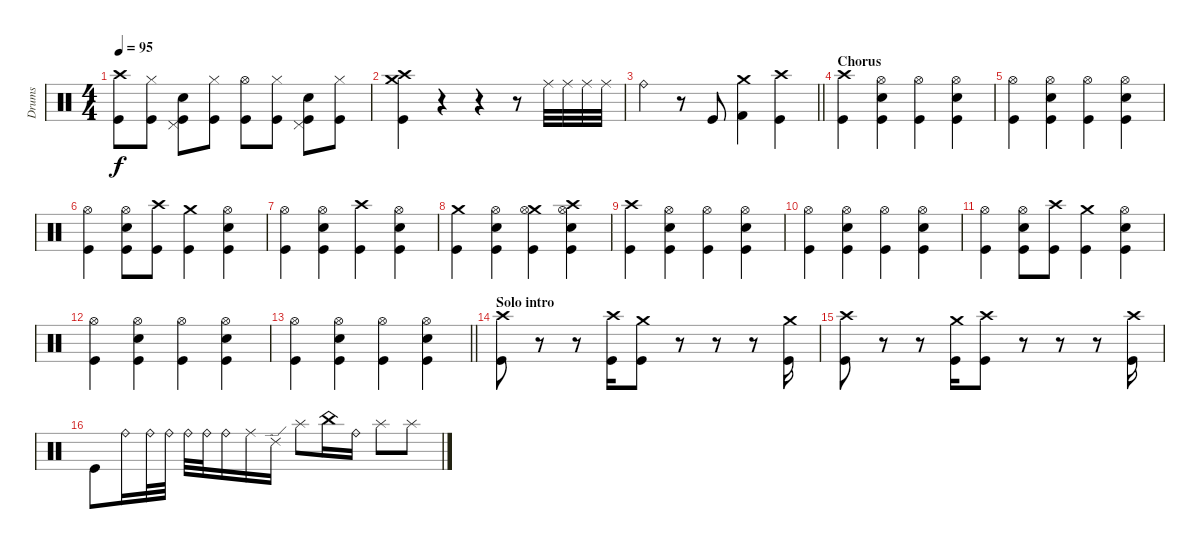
\track ("Drums" "Drums") {instrument percussion}
\staff {score}
\articulation defaults
\ts (4 4)
\tempo 95
\clef neutral
\ks c
("Crash high (hit)" "Kick (hit)").8{dy f} ("Hi-Hat (closed)" "Kick (hit)").8 ("Pedal Hi-Hat (hit)" "Snare (hit) 2" "Kick (hit)").8 ("Hi-Hat (closed)" "Kick (hit)").8 ("Hi-Hat (open)" "Kick (hit)").8 ("Hi-Hat (closed)" "Kick (hit)").8 ("Pedal Hi-Hat (hit)" "Snare (hit) 2" "Kick (hit)").8 ("Hi-Hat (closed)" "Kick (hit)").8 |
("Crash medium (hit)" "Crash high (hit)" "Kick (hit)").4 r.4 r.4 r.8 "Ride (middle)".32 "Ride (middle)".32 "Ride (middle)".32 "Ride (middle)".32 |
\barLineRight lightlight "Ride (bell)".4
r.8 "Kick (hit)".8 ("Crash medium (hit)" "Kick (hit) 2").4 ("Crash high (hit)" "Kick (hit)").4 |
\section ("" "Chorus")
("Crash high (hit)" "Kick (hit)").4 ("Hi-Hat (open)" "Snare (hit) 2" "Kick (hit)").4 ("Hi-Hat (open)" "Kick (hit)").4 ("Hi-Hat (open)" "Snare (hit) 2" "Kick (hit)").4 |
("Hi-Hat (open)" "Kick (hit)").4 ("Hi-Hat (open)" "Snare (hit) 2" "Kick (hit)").4 ("Hi-Hat (open)" "Kick (hit)").4 ("Hi-Hat (open)" "Snare (hit) 2" "Kick (hit)").4 |
("Hi-Hat (open)" "Kick (hit)").4 ("Hi-Hat (open)" "Snare (hit) 2" "Kick (hit)").8 ("Crash high (hit)" "Kick (hit)").8 ("Crash medium (hit)" "Kick (hit)").4 ("Hi-Hat (open)" "Snare (hit) 2" "Kick (hit)").4 |
("Hi-Hat (open)" "Kick (hit)").4 ("Hi-Hat (open)" "Snare (hit) 2" "Kick (hit)").4 ("Crash high (hit)" "Kick (hit)").4 ("Hi-Hat (open)" "Snare (hit) 2" "Kick (hit)").4 |
("Crash medium (hit)" "Kick (hit)").4 ("Hi-Hat (open)" "Snare (hit) 2" "Kick (hit)").4 ("Crash medium (hit)" "Hi-Hat (open)" "Kick (hit)").4 ("Crash high (hit)" "Hi-Hat (open)" "Snare (hit) 2" "Kick (hit)").4 |
("Crash high (hit)" "Kick (hit)").4 ("Hi-Hat (open)" "Snare (hit) 2" "Kick (hit)").4 ("Hi-Hat (open)" "Kick (hit)").4 ("Hi-Hat (open)" "Snare (hit) 2" "Kick (hit)").4 |
("Hi-Hat (open)" "Kick (hit)").4 ("Hi-Hat (open)" "Snare (hit) 2" "Kick (hit)").4 ("Hi-Hat (open)" "Kick (hit)").4 ("Hi-Hat (open)" "Snare (hit) 2" "Kick (hit)").4 |
("Hi-Hat (open)" "Kick (hit)").4 ("Hi-Hat (open)" "Snare (hit) 2" "Kick (hit)").8 ("Crash high (hit)" "Kick (hit)").8 ("Crash medium (hit)" "Kick (hit)").4 ("Hi-Hat (open)" "Snare (hit) 2" "Kick (hit)").4 |
("Hi-Hat (open)" "Kick (hit)").4 ("Hi-Hat (open)" "Snare (hit) 2" "Kick (hit)").4 ("Hi-Hat (open)" "Kick (hit)").4 ("Hi-Hat (open)" "Snare (hit) 2" "Kick (hit)").4 |
\barLineRight lightlight
("Hi-Hat (open)" "Kick (hit)").4 ("Hi-Hat (open)" "Snare (hit) 2" "Kick (hit)").4 ("Hi-Hat (open)" "Kick (hit)").4 ("Hi-Hat (open)" "Snare (hit) 2" "Kick (hit)").4 |
\section ("" "Solo intro")
("Crash high (hit)" "Kick (hit)").8 r.8 r.8 ("Crash high (hit)" "Kick (hit)").16 ("Crash medium (hit)" "Kick (hit)").8 r.8 r.8 r.8 ("Crash medium (hit)" "Kick (hit)").16 |
("Crash high (hit)" "Kick (hit)").8 r.8 r.8 ("Crash medium (hit)" "Kick (hit)").16 ("Crash high (hit)" "Kick (hit)").8 r.8 r.8 r.8 ("Crash high (hit)" "Kick (hit)").16 |
"Kick (hit)".8 "Ride (bell)".16 "Ride (bell)".32 "Ride (bell)".32 "Ride (bell)".32 "Ride (bell)".32 "Ride (bell)".16 "Ride (middle)".16 "Ride (edge) 2".16 "Splash (hit)".8 "China (hit)".16 "Ride (bell)".16 "Splash (hit)".8 "Splash (hit)".8
